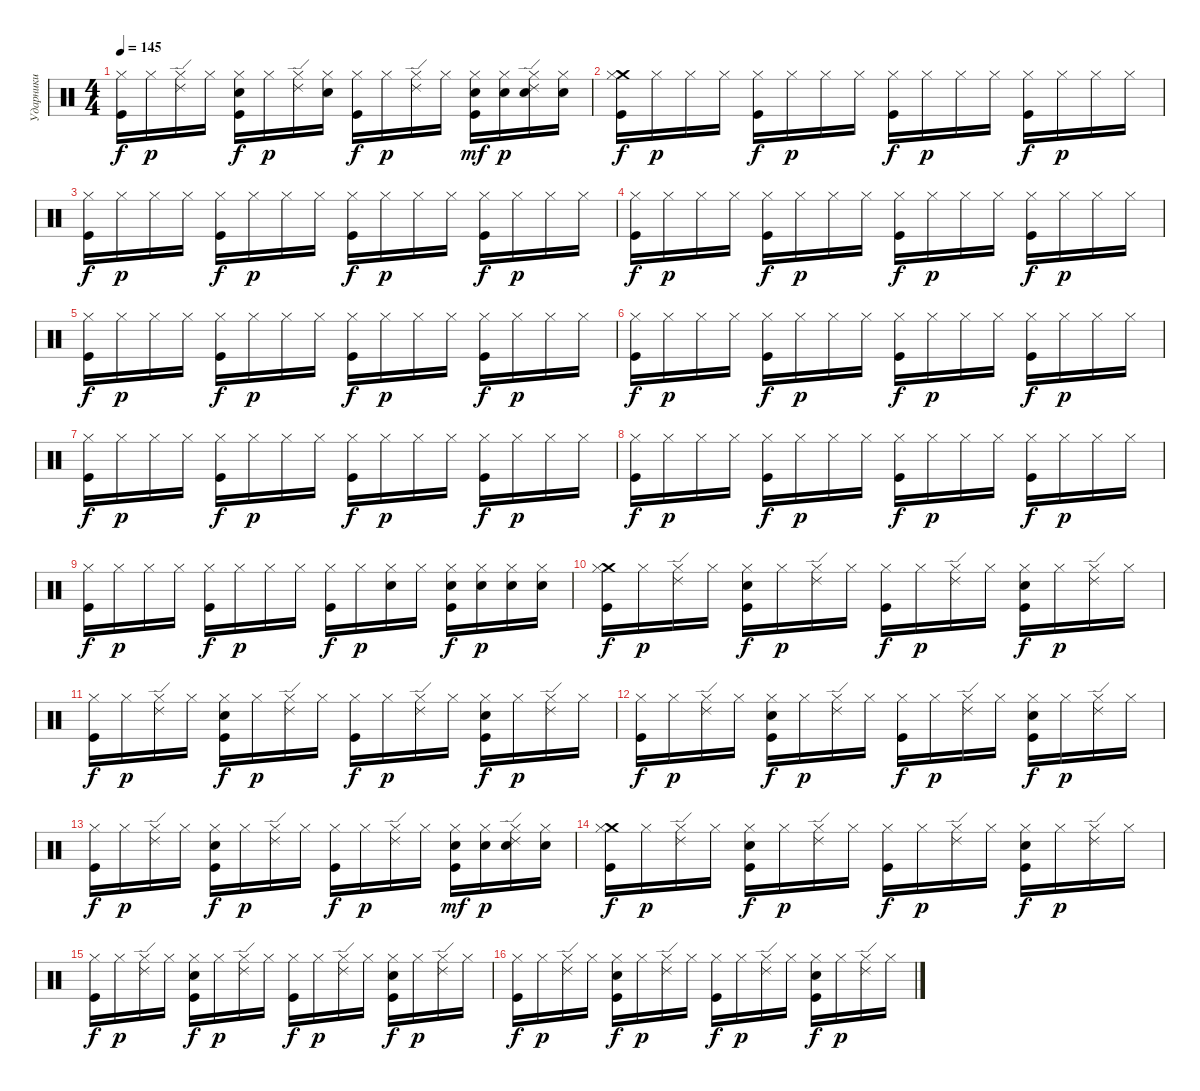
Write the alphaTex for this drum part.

\track ("Ударники" "Ударники") {instrument percussion}
\staff {score}
\articulation defaults
\ts (4 4)
\tempo 145
\clef neutral
\ks c
("Kick (hit)" "Hi-Hat (closed)").16{dy f} "Hi-Hat (closed)".16{dy p} ("Ride (edge) 2" "Hi-Hat (closed)").16 "Hi-Hat (closed)".16 ("Electric Snare (hit)" "Kick (hit)" "Hi-Hat (closed)").16{dy f} "Hi-Hat (closed)".16{dy p} ("Ride (edge) 2" "Hi-Hat (closed)").16 ("Electric Snare (hit)" "Hi-Hat (closed)").16 ("Kick (hit)" "Hi-Hat (closed)").16{dy f} "Hi-Hat (closed)".16{dy p} ("Ride (edge) 2" "Hi-Hat (closed)").16 "Hi-Hat (closed)".16 ("Electric Snare (hit)" "Kick (hit)" "Hi-Hat (closed)").16{dy mf} ("Electric Snare (hit)" "Hi-Hat (closed)").16{dy p} ("Electric Snare (hit)" "Ride (edge) 2" "Hi-Hat (closed)").16 ("Electric Snare (hit)" "Hi-Hat (closed)").16 |
("Crash medium (hit)" "Kick (hit)" "Hi-Hat (closed)").16{dy f} "Hi-Hat (closed)".16{dy p} "Hi-Hat (closed)".16 "Hi-Hat (closed)".16 ("Kick (hit)" "Hi-Hat (closed)").16{dy f} "Hi-Hat (closed)".16{dy p} "Hi-Hat (closed)".16 "Hi-Hat (closed)".16 ("Kick (hit)" "Hi-Hat (closed)").16{dy f} "Hi-Hat (closed)".16{dy p} "Hi-Hat (closed)".16 "Hi-Hat (closed)".16 ("Kick (hit)" "Hi-Hat (closed)").16{dy f} "Hi-Hat (closed)".16{dy p} "Hi-Hat (closed)".16 "Hi-Hat (closed)".16 |
("Kick (hit)" "Hi-Hat (closed)").16{dy f} "Hi-Hat (closed)".16{dy p} "Hi-Hat (closed)".16 "Hi-Hat (closed)".16 ("Kick (hit)" "Hi-Hat (closed)").16{dy f} "Hi-Hat (closed)".16{dy p} "Hi-Hat (closed)".16 "Hi-Hat (closed)".16 ("Kick (hit)" "Hi-Hat (closed)").16{dy f} "Hi-Hat (closed)".16{dy p} "Hi-Hat (closed)".16 "Hi-Hat (closed)".16 ("Kick (hit)" "Hi-Hat (closed)").16{dy f} "Hi-Hat (closed)".16{dy p} "Hi-Hat (closed)".16 "Hi-Hat (closed)".16 |
("Kick (hit)" "Hi-Hat (closed)").16{dy f} "Hi-Hat (closed)".16{dy p} "Hi-Hat (closed)".16 "Hi-Hat (closed)".16 ("Kick (hit)" "Hi-Hat (closed)").16{dy f} "Hi-Hat (closed)".16{dy p} "Hi-Hat (closed)".16 "Hi-Hat (closed)".16 ("Kick (hit)" "Hi-Hat (closed)").16{dy f} "Hi-Hat (closed)".16{dy p} "Hi-Hat (closed)".16 "Hi-Hat (closed)".16 ("Kick (hit)" "Hi-Hat (closed)").16{dy f} "Hi-Hat (closed)".16{dy p} "Hi-Hat (closed)".16 "Hi-Hat (closed)".16 |
("Kick (hit)" "Hi-Hat (closed)").16{dy f} "Hi-Hat (closed)".16{dy p} "Hi-Hat (closed)".16 "Hi-Hat (closed)".16 ("Kick (hit)" "Hi-Hat (closed)").16{dy f} "Hi-Hat (closed)".16{dy p} "Hi-Hat (closed)".16 "Hi-Hat (closed)".16 ("Kick (hit)" "Hi-Hat (closed)").16{dy f} "Hi-Hat (closed)".16{dy p} "Hi-Hat (closed)".16 "Hi-Hat (closed)".16 ("Kick (hit)" "Hi-Hat (closed)").16{dy f} "Hi-Hat (closed)".16{dy p} "Hi-Hat (closed)".16 "Hi-Hat (closed)".16 |
("Kick (hit)" "Hi-Hat (closed)").16{dy f} "Hi-Hat (closed)".16{dy p} "Hi-Hat (closed)".16 "Hi-Hat (closed)".16 ("Kick (hit)" "Hi-Hat (closed)").16{dy f} "Hi-Hat (closed)".16{dy p} "Hi-Hat (closed)".16 "Hi-Hat (closed)".16 ("Kick (hit)" "Hi-Hat (closed)").16{dy f} "Hi-Hat (closed)".16{dy p} "Hi-Hat (closed)".16 "Hi-Hat (closed)".16 ("Kick (hit)" "Hi-Hat (closed)").16{dy f} "Hi-Hat (closed)".16{dy p} "Hi-Hat (closed)".16 "Hi-Hat (closed)".16 |
("Kick (hit)" "Hi-Hat (closed)").16{dy f} "Hi-Hat (closed)".16{dy p} "Hi-Hat (closed)".16 "Hi-Hat (closed)".16 ("Kick (hit)" "Hi-Hat (closed)").16{dy f} "Hi-Hat (closed)".16{dy p} "Hi-Hat (closed)".16 "Hi-Hat (closed)".16 ("Kick (hit)" "Hi-Hat (closed)").16{dy f} "Hi-Hat (closed)".16{dy p} "Hi-Hat (closed)".16 "Hi-Hat (closed)".16 ("Kick (hit)" "Hi-Hat (closed)").16{dy f} "Hi-Hat (closed)".16{dy p} "Hi-Hat (closed)".16 "Hi-Hat (closed)".16 |
("Kick (hit)" "Hi-Hat (closed)").16{dy f} "Hi-Hat (closed)".16{dy p} "Hi-Hat (closed)".16 "Hi-Hat (closed)".16 ("Kick (hit)" "Hi-Hat (closed)").16{dy f} "Hi-Hat (closed)".16{dy p} "Hi-Hat (closed)".16 "Hi-Hat (closed)".16 ("Kick (hit)" "Hi-Hat (closed)").16{dy f} "Hi-Hat (closed)".16{dy p} "Hi-Hat (closed)".16 "Hi-Hat (closed)".16 ("Kick (hit)" "Hi-Hat (closed)").16{dy f} "Hi-Hat (closed)".16{dy p} "Hi-Hat (closed)".16 "Hi-Hat (closed)".16 |
("Kick (hit)" "Hi-Hat (closed)").16{dy f} "Hi-Hat (closed)".16{dy p} "Hi-Hat (closed)".16 "Hi-Hat (closed)".16 ("Kick (hit)" "Hi-Hat (closed)").16{dy f} "Hi-Hat (closed)".16{dy p} "Hi-Hat (closed)".16 "Hi-Hat (closed)".16 ("Kick (hit)" "Hi-Hat (closed)").16{dy f} "Hi-Hat (closed)".16{dy p} ("Hi-Hat (closed)" "Electric Snare (hit)").16 "Hi-Hat (closed)".16 ("Kick (hit)" "Hi-Hat (closed)" "Electric Snare (hit)").16{dy f} ("Hi-Hat (closed)" "Electric Snare (hit)").16{dy p} ("Hi-Hat (closed)" "Electric Snare (hit)").16 ("Hi-Hat (closed)" "Electric Snare (hit)").16 |
("Crash medium (hit)" "Kick (hit)" "Hi-Hat (closed)").16{dy f} "Hi-Hat (closed)".16{dy p} ("Ride (edge) 2" "Hi-Hat (closed)").16 "Hi-Hat (closed)".16 ("Electric Snare (hit)" "Kick (hit)" "Hi-Hat (closed)").16{dy f} "Hi-Hat (closed)".16{dy p} ("Ride (edge) 2" "Hi-Hat (closed)").16 "Hi-Hat (closed)".16 ("Kick (hit)" "Hi-Hat (closed)").16{dy f} "Hi-Hat (closed)".16{dy p} ("Ride (edge) 2" "Hi-Hat (closed)").16 "Hi-Hat (closed)".16 ("Electric Snare (hit)" "Kick (hit)" "Hi-Hat (closed)").16{dy f} "Hi-Hat (closed)".16{dy p} ("Ride (edge) 2" "Hi-Hat (closed)").16 "Hi-Hat (closed)".16 |
("Kick (hit)" "Hi-Hat (closed)").16{dy f} "Hi-Hat (closed)".16{dy p} ("Ride (edge) 2" "Hi-Hat (closed)").16 "Hi-Hat (closed)".16 ("Electric Snare (hit)" "Kick (hit)" "Hi-Hat (closed)").16{dy f} "Hi-Hat (closed)".16{dy p} ("Ride (edge) 2" "Hi-Hat (closed)").16 "Hi-Hat (closed)".16 ("Kick (hit)" "Hi-Hat (closed)").16{dy f} "Hi-Hat (closed)".16{dy p} ("Ride (edge) 2" "Hi-Hat (closed)").16 "Hi-Hat (closed)".16 ("Electric Snare (hit)" "Kick (hit)" "Hi-Hat (closed)").16{dy f} "Hi-Hat (closed)".16{dy p} ("Ride (edge) 2" "Hi-Hat (closed)").16 "Hi-Hat (closed)".16 |
("Kick (hit)" "Hi-Hat (closed)").16{dy f} "Hi-Hat (closed)".16{dy p} ("Ride (edge) 2" "Hi-Hat (closed)").16 "Hi-Hat (closed)".16 ("Electric Snare (hit)" "Kick (hit)" "Hi-Hat (closed)").16{dy f} "Hi-Hat (closed)".16{dy p} ("Ride (edge) 2" "Hi-Hat (closed)").16 "Hi-Hat (closed)".16 ("Kick (hit)" "Hi-Hat (closed)").16{dy f} "Hi-Hat (closed)".16{dy p} ("Ride (edge) 2" "Hi-Hat (closed)").16 "Hi-Hat (closed)".16 ("Electric Snare (hit)" "Kick (hit)" "Hi-Hat (closed)").16{dy f} "Hi-Hat (closed)".16{dy p} ("Ride (edge) 2" "Hi-Hat (closed)").16 "Hi-Hat (closed)".16 |
("Kick (hit)" "Hi-Hat (closed)").16{dy f} "Hi-Hat (closed)".16{dy p} ("Ride (edge) 2" "Hi-Hat (closed)").16 "Hi-Hat (closed)".16 ("Electric Snare (hit)" "Kick (hit)" "Hi-Hat (closed)").16{dy f} "Hi-Hat (closed)".16{dy p} ("Ride (edge) 2" "Hi-Hat (closed)").16 "Hi-Hat (closed)".16 ("Kick (hit)" "Hi-Hat (closed)").16{dy f} "Hi-Hat (closed)".16{dy p} ("Ride (edge) 2" "Hi-Hat (closed)").16 "Hi-Hat (closed)".16 ("Electric Snare (hit)" "Kick (hit)" "Hi-Hat (closed)").16{dy mf} ("Electric Snare (hit)" "Hi-Hat (closed)").16{dy p} ("Electric Snare (hit)" "Ride (edge) 2" "Hi-Hat (closed)").16 ("Electric Snare (hit)" "Hi-Hat (closed)").16 |
("Crash medium (hit)" "Kick (hit)" "Hi-Hat (closed)").16{dy f} "Hi-Hat (closed)".16{dy p} ("Ride (edge) 2" "Hi-Hat (closed)").16 "Hi-Hat (closed)".16 ("Electric Snare (hit)" "Kick (hit)" "Hi-Hat (closed)").16{dy f} "Hi-Hat (closed)".16{dy p} ("Ride (edge) 2" "Hi-Hat (closed)").16 "Hi-Hat (closed)".16 ("Kick (hit)" "Hi-Hat (closed)").16{dy f} "Hi-Hat (closed)".16{dy p} ("Ride (edge) 2" "Hi-Hat (closed)").16 "Hi-Hat (closed)".16 ("Electric Snare (hit)" "Kick (hit)" "Hi-Hat (closed)").16{dy f} "Hi-Hat (closed)".16{dy p} ("Ride (edge) 2" "Hi-Hat (closed)").16 "Hi-Hat (closed)".16 |
("Kick (hit)" "Hi-Hat (closed)").16{dy f} "Hi-Hat (closed)".16{dy p} ("Ride (edge) 2" "Hi-Hat (closed)").16 "Hi-Hat (closed)".16 ("Electric Snare (hit)" "Kick (hit)" "Hi-Hat (closed)").16{dy f} "Hi-Hat (closed)".16{dy p} ("Ride (edge) 2" "Hi-Hat (closed)").16 "Hi-Hat (closed)".16 ("Kick (hit)" "Hi-Hat (closed)").16{dy f} "Hi-Hat (closed)".16{dy p} ("Ride (edge) 2" "Hi-Hat (closed)").16 "Hi-Hat (closed)".16 ("Electric Snare (hit)" "Kick (hit)" "Hi-Hat (closed)").16{dy f} "Hi-Hat (closed)".16{dy p} ("Ride (edge) 2" "Hi-Hat (closed)").16 "Hi-Hat (closed)".16 |
("Kick (hit)" "Hi-Hat (closed)").16{dy f} "Hi-Hat (closed)".16{dy p} ("Ride (edge) 2" "Hi-Hat (closed)").16 "Hi-Hat (closed)".16 ("Electric Snare (hit)" "Kick (hit)" "Hi-Hat (closed)").16{dy f} "Hi-Hat (closed)".16{dy p} ("Ride (edge) 2" "Hi-Hat (closed)").16 "Hi-Hat (closed)".16 ("Kick (hit)" "Hi-Hat (closed)").16{dy f} "Hi-Hat (closed)".16{dy p} ("Ride (edge) 2" "Hi-Hat (closed)").16 "Hi-Hat (closed)".16 ("Electric Snare (hit)" "Kick (hit)" "Hi-Hat (closed)").16{dy f} "Hi-Hat (closed)".16{dy p} ("Ride (edge) 2" "Hi-Hat (closed)").16 "Hi-Hat (closed)".16
